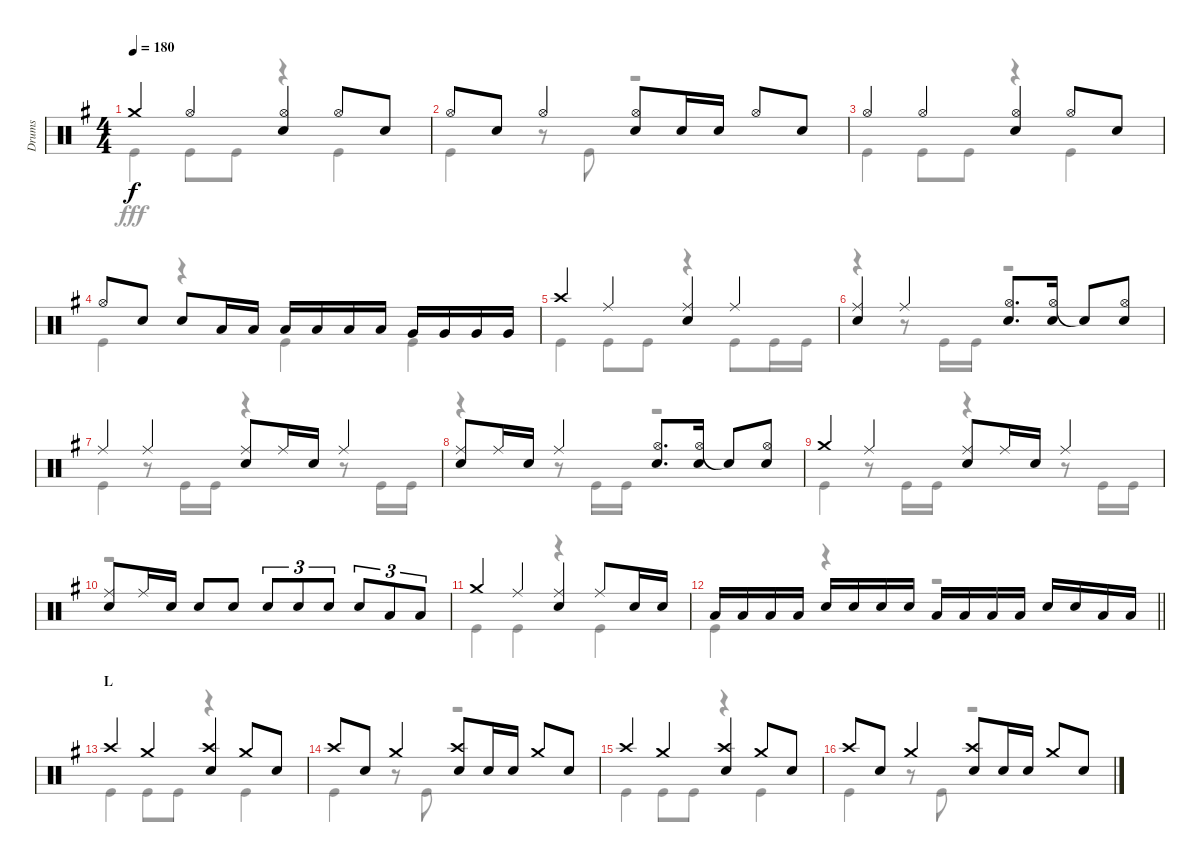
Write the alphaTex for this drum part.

\track ("Drums" "Drums") {instrument percussion}
\staff {score}
\articulation defaults
\voice
\ts (4 4)
\tempo 180
\clef neutral
\ks g "Crash medium (hit)".4{dy f} "Hi-Hat (open)".4
("Hi-Hat (open)" "Snare (hit) 2").4 "Hi-Hat (open)".8 "Snare (hit) 2".8 |
"Hi-Hat (open)".8 "Snare (hit) 2".8 "Hi-Hat (open)".4 ("Hi-Hat (open)" "Snare (hit) 2").8 "Snare (hit) 2".16 "Snare (hit) 2".16 "Hi-Hat (open)".8 "Snare (hit) 2".8 |
"Hi-Hat (open)".4 "Hi-Hat (open)".4 ("Hi-Hat (open)" "Snare (hit) 2").4 "Hi-Hat (open)".8 "Snare (hit) 2".8 |
"Hi-Hat (open)".8 "Snare (hit) 2".8 "Snare (hit) 2".8 "Low Tom (hit)".16 "Low Tom (hit)".16 "Low Tom (hit)".16 "Low Tom (hit)".16 "Low Tom (hit)".16 "Low Tom (hit)".16 "Very Low Tom (hit)".16 "Very Low Tom (hit)".16 "Very Low Tom (hit)".16 "Very Low Tom (hit)".16 |
"Crash high (hit)".4 "Ride (middle)".4 ("Ride (middle)" "Snare (hit) 2").4 "Ride (middle)".4 |
("Ride (middle)" "Snare (hit) 2").4 "Ride (middle)".4 ("Hi-Hat (open)" "Snare (hit) 2").8{d} ("Hi-Hat (open)" "Snare (hit) 2").16 "Snare (hit)"{t}.8 ("Hi-Hat (open)" "Snare (hit) 2").8 |
"Ride (middle)".4 "Ride (middle)".4 ("Ride (middle)" "Snare (hit) 2").8 "Ride (middle)".16 "Snare (hit) 2".16 "Ride (middle)".4 |
("Ride (middle)" "Snare (hit) 2").8 "Ride (middle)".16 "Snare (hit) 2".16 "Ride (middle)".4 ("Hi-Hat (open)" "Snare (hit) 2").8{d} ("Hi-Hat (open)" "Snare (hit) 2").16 "Snare (hit)"{t}.8 ("Hi-Hat (open)" "Snare (hit) 2").8 |
"Crash medium (hit)".4 "Ride (middle)".4 ("Ride (middle)" "Snare (hit) 2").8 "Ride (middle)".16 "Snare (hit) 2".16 "Ride (middle)".4 |
("Ride (middle)" "Snare (hit) 2").8 "Ride (middle)".16 "Snare (hit) 2".16 "Snare (hit) 2".8 "Snare (hit) 2".8 "Snare (hit) 2".8{tu (3 2)} "Snare (hit) 2".8{tu (3 2)} "Snare (hit) 2".8{tu (3 2)} "Snare (hit) 2".8{tu (3 2)} "Low Tom (hit)".8{tu (3 2)} "Low Tom (hit)".8{tu (3 2)} |
"Crash medium (hit)".4 "Ride (middle)".4 ("Ride (middle)" "Snare (hit) 2").4 "Ride (middle)".8 "Snare (hit) 2".16 "Snare (hit) 2".16 |
\barLineRight lightlight "Low Tom (hit)".16 "Low Tom (hit)".16 "Low Tom (hit)".16 "Low Tom (hit)".16 "Snare (hit) 2".16 "Snare (hit) 2".16 "Snare (hit) 2".16 "Snare (hit) 2".16 "Low Tom (hit)".16 "Low Tom (hit)".16 "Low Tom (hit)".16 "Low Tom (hit)".16 "Snare (hit) 2".16 "Snare (hit) 2".16 "Low Tom (hit)".16 "Low Tom (hit)".16
|
\section ("" "L")
"Crash high (hit)".4 "Crash medium (hit)".4 ("Crash high (hit)" "Snare (hit) 2").4 "Crash medium (hit)".8 "Snare (hit) 2".8 |
"Crash high (hit)".8 "Snare (hit) 2".8 "Crash medium (hit)".4 ("Crash high (hit)" "Snare (hit) 2").8 "Snare (hit) 2".16 "Snare (hit) 2".16 "Crash medium (hit)".8 "Snare (hit) 2".8 |
"Crash high (hit)".4 "Crash medium (hit)".4 ("Crash high (hit)" "Snare (hit) 2").4 "Crash medium (hit)".8 "Snare (hit) 2".8 |
"Crash high (hit)".8 "Snare (hit) 2".8 "Crash medium (hit)".4 ("Crash high (hit)" "Snare (hit) 2").8 "Snare (hit) 2".16 "Snare (hit) 2".16 "Crash medium (hit)".8 "Snare (hit) 2".8
\voice
\clef neutral
\ottava regular
\simile none
\ks g "Kick (hit)".4{dy fff} "Kick (hit)".8 "Kick (hit)".8
r.4 "Kick (hit)".4 |
"Kick (hit)".4 r.8 "Kick (hit)".8 r.2 |
"Kick (hit)".4 "Kick (hit)".8 "Kick (hit)".8 r.4 "Kick (hit)".4 |
"Kick (hit)".4 r.4 "Kick (hit)".4 "Kick (hit)".4 |
"Kick (hit)".4 "Kick (hit)".8 "Kick (hit)".8 r.4 "Kick (hit)".8 "Kick (hit)".16 "Kick (hit)".16 |
r.4 r.8 "Kick (hit)".16 "Kick (hit)".16 r.2 |
"Kick (hit)".4 r.8 "Kick (hit)".16 "Kick (hit)".16 r.4 r.8 "Kick (hit)".16 "Kick (hit)".16 |
r.4 r.8 "Kick (hit)".16 "Kick (hit)".16 r.2 |
"Kick (hit)".4 r.8 "Kick (hit)".16 "Kick (hit)".16 r.4 r.8 "Kick (hit)".16 "Kick (hit)".16 |
r.1 |
"Kick (hit)".4 "Kick (hit)".4 r.4 "Kick (hit)".4 |
\barLineRight lightlight "Kick (hit)".4
r.4 r.2 |
"Kick (hit)".4 "Kick (hit)".8 "Kick (hit)".8 r.4 "Kick (hit)".4 |
"Kick (hit)".4 r.8 "Kick (hit)".8 r.2 |
"Kick (hit)".4 "Kick (hit)".8 "Kick (hit)".8 r.4 "Kick (hit)".4 |
"Kick (hit)".4 r.8 "Kick (hit)".8 r.2
